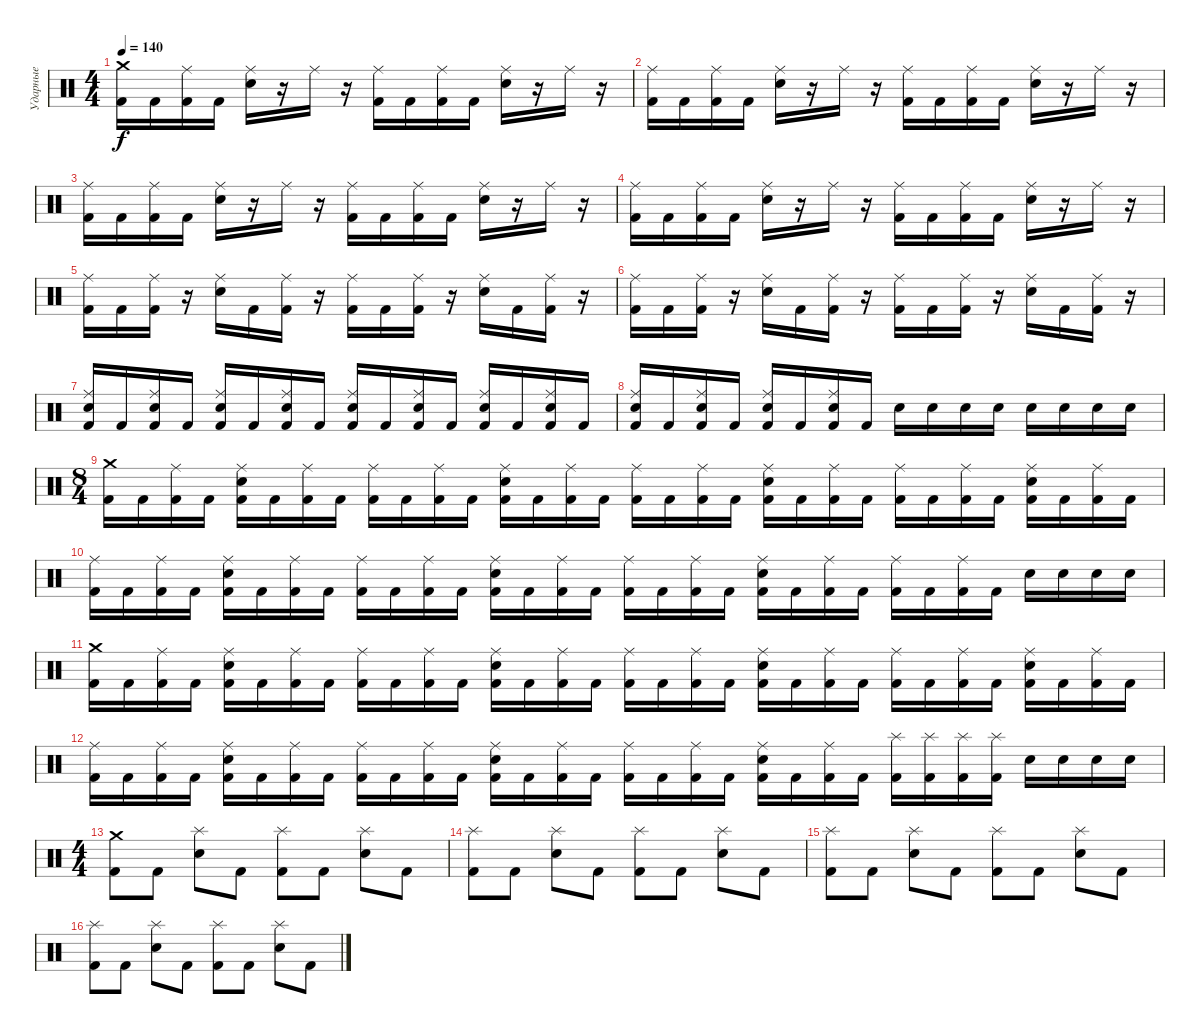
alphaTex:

\track ("Ударные" "Ударные") {instrument percussion}
\staff {score}
\articulation defaults
\ts (4 4)
\tempo 140
\clef neutral
\ks c
("Crash medium (hit)" "Kick (hit) 2").16{dy f} "Kick (hit) 2".16 ("Ride (middle)" "Kick (hit) 2").16 "Kick (hit) 2".16 ("Ride (middle)" "Snare (hit) 2").16 r.16 "Ride (middle)".16 r.16 ("Ride (middle)" "Kick (hit) 2").16 "Kick (hit) 2".16 ("Ride (middle)" "Kick (hit) 2").16 "Kick (hit) 2".16 ("Ride (middle)" "Snare (hit) 2").16 r.16 "Ride (middle)".16 r.16 |
("Ride (middle)" "Kick (hit) 2").16 "Kick (hit) 2".16 ("Ride (middle)" "Kick (hit) 2").16 "Kick (hit) 2".16 ("Ride (middle)" "Snare (hit) 2").16 r.16 "Ride (middle)".16 r.16 ("Ride (middle)" "Kick (hit) 2").16 "Kick (hit) 2".16 ("Ride (middle)" "Kick (hit) 2").16 "Kick (hit) 2".16 ("Ride (middle)" "Snare (hit) 2").16 r.16 "Ride (middle)".16 r.16 |
("Ride (middle)" "Kick (hit) 2").16 "Kick (hit) 2".16 ("Ride (middle)" "Kick (hit) 2").16 "Kick (hit) 2".16 ("Ride (middle)" "Snare (hit) 2").16 r.16 "Ride (middle)".16 r.16 ("Ride (middle)" "Kick (hit) 2").16 "Kick (hit) 2".16 ("Ride (middle)" "Kick (hit) 2").16 "Kick (hit) 2".16 ("Ride (middle)" "Snare (hit) 2").16 r.16 "Ride (middle)".16 r.16 |
("Ride (middle)" "Kick (hit) 2").16 "Kick (hit) 2".16 ("Ride (middle)" "Kick (hit) 2").16 "Kick (hit) 2".16 ("Ride (middle)" "Snare (hit) 2").16 r.16 "Ride (middle)".16 r.16 ("Ride (middle)" "Kick (hit) 2").16 "Kick (hit) 2".16 ("Ride (middle)" "Kick (hit) 2").16 "Kick (hit) 2".16 ("Ride (middle)" "Snare (hit) 2").16 r.16 "Ride (middle)".16 r.16 |
("Ride (middle)" "Kick (hit) 2").16 "Kick (hit) 2".16 ("Ride (middle)" "Kick (hit) 2").16 r.16 ("Ride (middle)" "Snare (hit) 2").16 "Kick (hit) 2".16 ("Ride (middle)" "Kick (hit) 2").16 r.16 ("Ride (middle)" "Kick (hit) 2").16 "Kick (hit) 2".16 ("Ride (middle)" "Kick (hit) 2").16 r.16 ("Ride (middle)" "Snare (hit) 2").16 "Kick (hit) 2".16 ("Ride (middle)" "Kick (hit) 2").16 r.16 |
("Ride (middle)" "Kick (hit) 2").16 "Kick (hit) 2".16 ("Ride (middle)" "Kick (hit) 2").16 r.16 ("Ride (middle)" "Snare (hit) 2").16 "Kick (hit) 2".16 ("Ride (middle)" "Kick (hit) 2").16 r.16 ("Ride (middle)" "Kick (hit) 2").16 "Kick (hit) 2".16 ("Ride (middle)" "Kick (hit) 2").16 r.16 ("Ride (middle)" "Snare (hit) 2").16 "Kick (hit) 2".16 ("Ride (middle)" "Kick (hit) 2").16 r.16 |
("Ride (middle)" "Snare (hit) 2" "Kick (hit) 2").16 "Kick (hit) 2".16 ("Ride (middle)" "Snare (hit) 2" "Kick (hit) 2").16 "Kick (hit) 2".16 ("Ride (middle)" "Snare (hit) 2" "Kick (hit) 2").16 "Kick (hit) 2".16 ("Ride (middle)" "Snare (hit) 2" "Kick (hit) 2").16 "Kick (hit) 2".16 ("Ride (middle)" "Snare (hit) 2" "Kick (hit) 2").16 "Kick (hit) 2".16 ("Ride (middle)" "Snare (hit) 2" "Kick (hit) 2").16 "Kick (hit) 2".16 ("Ride (middle)" "Snare (hit) 2" "Kick (hit) 2").16 "Kick (hit) 2".16 ("Ride (middle)" "Snare (hit) 2" "Kick (hit) 2").16 "Kick (hit) 2".16 |
("Ride (middle)" "Snare (hit) 2" "Kick (hit) 2").16 "Kick (hit) 2".16 ("Ride (middle)" "Snare (hit) 2" "Kick (hit) 2").16 "Kick (hit) 2".16 ("Ride (middle)" "Snare (hit) 2" "Kick (hit) 2").16 "Kick (hit) 2".16 ("Ride (middle)" "Snare (hit) 2" "Kick (hit) 2").16 "Kick (hit) 2".16 "Snare (hit) 2".16 "Snare (hit) 2".16 "Snare (hit) 2".16 "Snare (hit) 2".16 "Snare (hit) 2".16 "Snare (hit) 2".16 "Snare (hit) 2".16 "Snare (hit) 2".16 |
\ts (8 4)
("Crash medium (hit)" "Kick (hit) 2").16 "Kick (hit) 2".16 ("Ride (middle)" "Kick (hit) 2").16 "Kick (hit) 2".16 ("Ride (middle)" "Snare (hit) 2" "Kick (hit) 2").16 "Kick (hit) 2".16 ("Ride (middle)" "Kick (hit) 2").16 "Kick (hit) 2".16 ("Ride (middle)" "Kick (hit) 2").16 "Kick (hit) 2".16 ("Ride (middle)" "Kick (hit) 2").16 "Kick (hit) 2".16 ("Ride (middle)" "Snare (hit) 2" "Kick (hit) 2").16 "Kick (hit) 2".16 ("Ride (middle)" "Kick (hit) 2").16 "Kick (hit) 2".16 ("Ride (middle)" "Kick (hit) 2").16 "Kick (hit) 2".16 ("Ride (middle)" "Kick (hit) 2").16 "Kick (hit) 2".16 ("Ride (middle)" "Snare (hit) 2" "Kick (hit) 2").16 "Kick (hit) 2".16 ("Ride (middle)" "Kick (hit) 2").16 "Kick (hit) 2".16 ("Ride (middle)" "Kick (hit) 2").16 "Kick (hit) 2".16 ("Ride (middle)" "Kick (hit) 2").16 "Kick (hit) 2".16 ("Ride (middle)" "Snare (hit) 2" "Kick (hit) 2").16 "Kick (hit) 2".16 ("Ride (middle)" "Kick (hit) 2").16 "Kick (hit) 2".16 |
("Ride (middle)" "Kick (hit) 2").16 "Kick (hit) 2".16 ("Ride (middle)" "Kick (hit) 2").16 "Kick (hit) 2".16 ("Ride (middle)" "Snare (hit) 2" "Kick (hit) 2").16 "Kick (hit) 2".16 ("Ride (middle)" "Kick (hit) 2").16 "Kick (hit) 2".16 ("Ride (middle)" "Kick (hit) 2").16 "Kick (hit) 2".16 ("Ride (middle)" "Kick (hit) 2").16 "Kick (hit) 2".16 ("Ride (middle)" "Snare (hit) 2" "Kick (hit) 2").16 "Kick (hit) 2".16 ("Ride (middle)" "Kick (hit) 2").16 "Kick (hit) 2".16 ("Ride (middle)" "Kick (hit) 2").16 "Kick (hit) 2".16 ("Ride (middle)" "Kick (hit) 2").16 "Kick (hit) 2".16 ("Ride (middle)" "Snare (hit) 2" "Kick (hit) 2").16 "Kick (hit) 2".16 ("Ride (middle)" "Kick (hit) 2").16 "Kick (hit) 2".16 ("Ride (middle)" "Kick (hit) 2").16 "Kick (hit) 2".16 ("Ride (middle)" "Kick (hit) 2").16 "Kick (hit) 2".16 "Snare (hit) 2".16 "Snare (hit) 2".16 "Snare (hit) 2".16 "Snare (hit) 2".16 |
("Crash medium (hit)" "Kick (hit) 2").16 "Kick (hit) 2".16 ("Ride (middle)" "Kick (hit) 2").16 "Kick (hit) 2".16 ("Ride (middle)" "Snare (hit) 2" "Kick (hit) 2").16 "Kick (hit) 2".16 ("Ride (middle)" "Kick (hit) 2").16 "Kick (hit) 2".16 ("Ride (middle)" "Kick (hit) 2").16 "Kick (hit) 2".16 ("Ride (middle)" "Kick (hit) 2").16 "Kick (hit) 2".16 ("Ride (middle)" "Snare (hit) 2" "Kick (hit) 2").16 "Kick (hit) 2".16 ("Ride (middle)" "Kick (hit) 2").16 "Kick (hit) 2".16 ("Ride (middle)" "Kick (hit) 2").16 "Kick (hit) 2".16 ("Ride (middle)" "Kick (hit) 2").16 "Kick (hit) 2".16 ("Ride (middle)" "Snare (hit) 2" "Kick (hit) 2").16 "Kick (hit) 2".16 ("Ride (middle)" "Kick (hit) 2").16 "Kick (hit) 2".16 ("Ride (middle)" "Kick (hit) 2").16 "Kick (hit) 2".16 ("Ride (middle)" "Kick (hit) 2").16 "Kick (hit) 2".16 ("Ride (middle)" "Snare (hit) 2" "Kick (hit) 2").16 "Kick (hit) 2".16 ("Ride (middle)" "Kick (hit) 2").16 "Kick (hit) 2".16 |
("Ride (middle)" "Kick (hit) 2").16 "Kick (hit) 2".16 ("Ride (middle)" "Kick (hit) 2").16 "Kick (hit) 2".16 ("Ride (middle)" "Snare (hit) 2" "Kick (hit) 2").16 "Kick (hit) 2".16 ("Ride (middle)" "Kick (hit) 2").16 "Kick (hit) 2".16 ("Ride (middle)" "Kick (hit) 2").16 "Kick (hit) 2".16 ("Ride (middle)" "Kick (hit) 2").16 "Kick (hit) 2".16 ("Ride (middle)" "Snare (hit) 2" "Kick (hit) 2").16 "Kick (hit) 2".16 ("Ride (middle)" "Kick (hit) 2").16 "Kick (hit) 2".16 ("Ride (middle)" "Kick (hit) 2").16 "Kick (hit) 2".16 ("Ride (middle)" "Kick (hit) 2").16 "Kick (hit) 2".16 ("Ride (middle)" "Snare (hit) 2" "Kick (hit) 2").16 "Kick (hit) 2".16 ("Ride (middle)" "Kick (hit) 2").16 "Kick (hit) 2".16 ("Splash (hit)" "Kick (hit) 2").16 ("Splash (hit)" "Kick (hit) 2").16 ("Splash (hit)" "Kick (hit) 2").16 ("Splash (hit)" "Kick (hit) 2").16 "Snare (hit) 2".16 "Snare (hit) 2".16 "Snare (hit) 2".16 "Snare (hit) 2".16 |
\ts (4 4)
("Crash medium (hit)" "Kick (hit) 2").8 "Kick (hit) 2".8 ("Splash (hit)" "Snare (hit) 2").8 "Kick (hit) 2".8 ("Splash (hit)" "Kick (hit) 2").8 "Kick (hit) 2".8 ("Splash (hit)" "Snare (hit) 2").8 "Kick (hit) 2".8 |
("Splash (hit)" "Kick (hit) 2").8 "Kick (hit) 2".8 ("Splash (hit)" "Snare (hit) 2").8 "Kick (hit) 2".8 ("Splash (hit)" "Kick (hit) 2").8 "Kick (hit) 2".8 ("Splash (hit)" "Snare (hit) 2").8 "Kick (hit) 2".8 |
("Splash (hit)" "Kick (hit) 2").8 "Kick (hit) 2".8 ("Splash (hit)" "Snare (hit) 2").8 "Kick (hit) 2".8 ("Splash (hit)" "Kick (hit) 2").8 "Kick (hit) 2".8 ("Splash (hit)" "Snare (hit) 2").8 "Kick (hit) 2".8 |
("Splash (hit)" "Kick (hit) 2").8 "Kick (hit) 2".8 ("Splash (hit)" "Snare (hit) 2").8 "Kick (hit) 2".8 ("Splash (hit)" "Kick (hit) 2").8 "Kick (hit) 2".8 ("Splash (hit)" "Snare (hit) 2").8 "Kick (hit) 2".8
